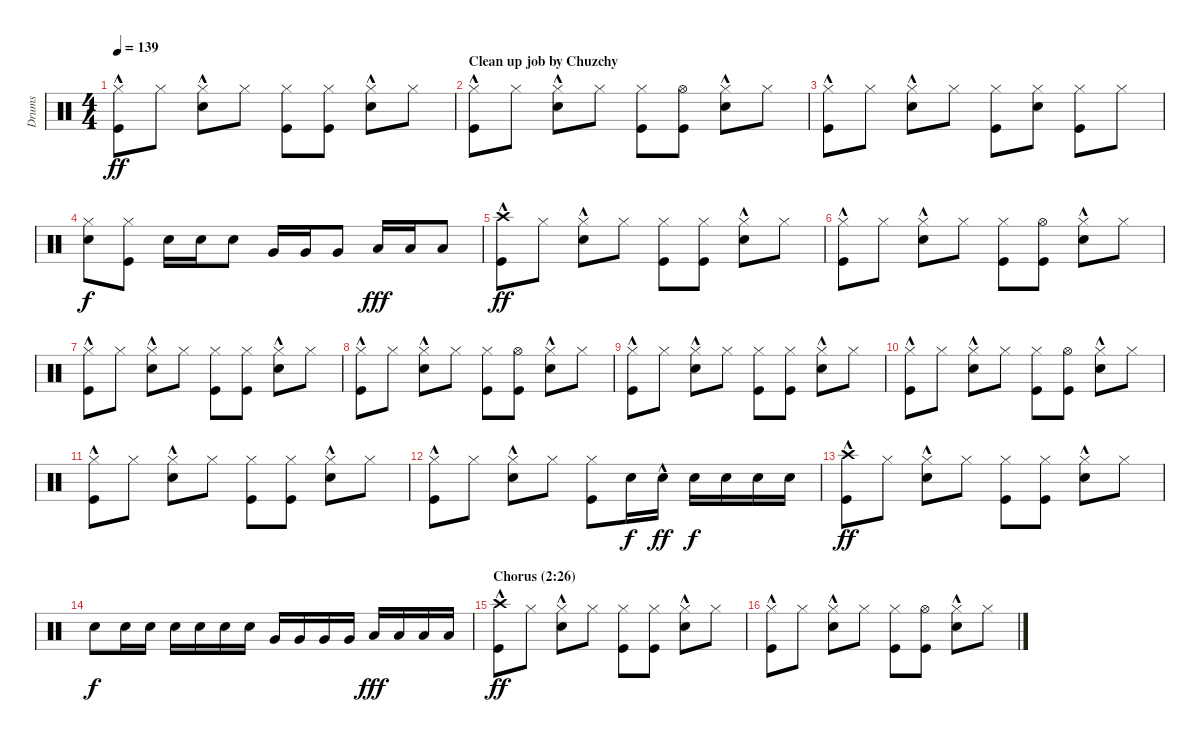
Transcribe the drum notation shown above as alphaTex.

\track ("Drums" "Drums") {instrument percussion}
\staff {score}
\articulation defaults
\ts (4 4)
\tempo 139
\clef neutral
\ks c
("Hi-Hat (closed)" "Kick (hit)"{hac}).8{dy ff} "Hi-Hat (closed)".8 ("Hi-Hat (closed)" "Snare (hit) 2"{hac}).8 "Hi-Hat (closed)".8 ("Hi-Hat (closed)" "Kick (hit)").8 ("Hi-Hat (closed)" "Kick (hit)").8 ("Hi-Hat (closed)" "Snare (hit) 2"{hac}).8 "Hi-Hat (closed)".8 |
\section ("" "Clean up job by Chuzchy")
("Hi-Hat (closed)" "Kick (hit)"{hac}).8 "Hi-Hat (closed)".8 ("Hi-Hat (closed)" "Snare (hit) 2"{hac}).8 "Hi-Hat (closed)".8 ("Hi-Hat (closed)" "Kick (hit)").8 ("Hi-Hat (open)" "Kick (hit)").8 ("Hi-Hat (closed)" "Snare (hit) 2"{hac}).8 "Hi-Hat (closed)".8 |
("Hi-Hat (closed)" "Kick (hit)"{hac}).8 "Hi-Hat (closed)".8 ("Hi-Hat (closed)" "Snare (hit) 2"{hac}).8 "Hi-Hat (closed)".8 ("Hi-Hat (closed)" "Kick (hit)").8 ("Hi-Hat (closed)" "Snare (hit) 2").8 ("Hi-Hat (closed)" "Kick (hit)").8 "Hi-Hat (closed)".8 |
("Hi-Hat (closed)" "Snare (hit) 2").8{dy f} ("Hi-Hat (closed)" "Kick (hit)").8 "Snare (hit) 2".16 "Snare (hit) 2".16 "Snare (hit) 2".8 "Very Low Tom (hit)".16 "Very Low Tom (hit)".16 "Very Low Tom (hit)".8 "Low Floor Tom (hit)".16{dy fff} "Low Floor Tom (hit)".16 "Low Floor Tom (hit)".8 |
("Crash high (hit)" "Kick (hit)"{hac}).8{dy ff} "Hi-Hat (closed)".8 ("Hi-Hat (closed)" "Snare (hit) 2"{hac}).8 "Hi-Hat (closed)".8 ("Hi-Hat (closed)" "Kick (hit)").8 ("Hi-Hat (closed)" "Kick (hit)").8 ("Hi-Hat (closed)" "Snare (hit) 2"{hac}).8 "Hi-Hat (closed)".8 |
("Hi-Hat (closed)" "Kick (hit)"{hac}).8 "Hi-Hat (closed)".8 ("Hi-Hat (closed)" "Snare (hit) 2"{hac}).8 "Hi-Hat (closed)".8 ("Hi-Hat (closed)" "Kick (hit)").8 ("Hi-Hat (open)" "Kick (hit)").8 ("Hi-Hat (closed)" "Snare (hit) 2"{hac}).8 "Hi-Hat (closed)".8 |
("Hi-Hat (closed)" "Kick (hit)"{hac}).8 "Hi-Hat (closed)".8 ("Hi-Hat (closed)" "Snare (hit) 2"{hac}).8 "Hi-Hat (closed)".8 ("Hi-Hat (closed)" "Kick (hit)").8 ("Hi-Hat (closed)" "Kick (hit)").8 ("Hi-Hat (closed)" "Snare (hit) 2"{hac}).8 "Hi-Hat (closed)".8 |
("Hi-Hat (closed)" "Kick (hit)"{hac}).8 "Hi-Hat (closed)".8 ("Hi-Hat (closed)" "Snare (hit) 2"{hac}).8 "Hi-Hat (closed)".8 ("Hi-Hat (closed)" "Kick (hit)").8 ("Hi-Hat (open)" "Kick (hit)").8 ("Hi-Hat (closed)" "Snare (hit) 2"{hac}).8 "Hi-Hat (closed)".8 |
("Hi-Hat (closed)" "Kick (hit)"{hac}).8 "Hi-Hat (closed)".8 ("Hi-Hat (closed)" "Snare (hit) 2"{hac}).8 "Hi-Hat (closed)".8 ("Hi-Hat (closed)" "Kick (hit)").8 ("Hi-Hat (closed)" "Kick (hit)").8 ("Hi-Hat (closed)" "Snare (hit) 2"{hac}).8 "Hi-Hat (closed)".8 |
("Hi-Hat (closed)" "Kick (hit)"{hac}).8 "Hi-Hat (closed)".8 ("Hi-Hat (closed)" "Snare (hit) 2"{hac}).8 "Hi-Hat (closed)".8 ("Hi-Hat (closed)" "Kick (hit)").8 ("Hi-Hat (open)" "Kick (hit)").8 ("Hi-Hat (closed)" "Snare (hit) 2"{hac}).8 "Hi-Hat (closed)".8 |
("Hi-Hat (closed)" "Kick (hit)"{hac}).8 "Hi-Hat (closed)".8 ("Hi-Hat (closed)" "Snare (hit) 2"{hac}).8 "Hi-Hat (closed)".8 ("Hi-Hat (closed)" "Kick (hit)").8 ("Hi-Hat (closed)" "Kick (hit)").8 ("Hi-Hat (closed)" "Snare (hit) 2"{hac}).8 "Hi-Hat (closed)".8 |
("Hi-Hat (closed)" "Kick (hit)"{hac}).8 "Hi-Hat (closed)".8 ("Hi-Hat (closed)" "Snare (hit) 2"{hac}).8 "Hi-Hat (closed)".8 ("Hi-Hat (closed)" "Kick (hit)").8 "Snare (hit) 2".16{dy f} "Snare (hit) 2"{hac}.16{dy ff} "Snare (hit) 2".16{dy f} "Snare (hit) 2".16 "Snare (hit) 2".16 "Snare (hit) 2".16 |
("Crash high (hit)" "Kick (hit)"{hac}).8{dy ff} "Hi-Hat (closed)".8 ("Hi-Hat (closed)" "Snare (hit) 2"{hac}).8 "Hi-Hat (closed)".8 ("Hi-Hat (closed)" "Kick (hit)").8 ("Hi-Hat (closed)" "Kick (hit)").8 ("Hi-Hat (closed)" "Snare (hit) 2"{hac}).8 "Hi-Hat (closed)".8 |
"Snare (hit) 2".8{dy f} "Snare (hit) 2".16 "Snare (hit) 2".16 "Snare (hit) 2".16 "Snare (hit) 2".16 "Snare (hit) 2".16 "Snare (hit) 2".16 "Very Low Tom (hit)".16 "Very Low Tom (hit)".16 "Very Low Tom (hit)".16 "Very Low Tom (hit)".16 "Low Floor Tom (hit)".16{dy fff} "Low Floor Tom (hit)".16 "Low Floor Tom (hit)".16 "Low Floor Tom (hit)".16 |
\section ("" "Chorus (2:26)")
("Crash high (hit)" "Kick (hit)"{hac}).8{dy ff} "Hi-Hat (closed)".8 ("Hi-Hat (closed)" "Snare (hit) 2"{hac}).8 "Hi-Hat (closed)".8 ("Hi-Hat (closed)" "Kick (hit)").8 ("Hi-Hat (closed)" "Kick (hit)").8 ("Hi-Hat (closed)" "Snare (hit) 2"{hac}).8 "Hi-Hat (closed)".8 |
("Hi-Hat (closed)" "Kick (hit)"{hac}).8 "Hi-Hat (closed)".8 ("Hi-Hat (closed)" "Snare (hit) 2"{hac}).8 "Hi-Hat (closed)".8 ("Hi-Hat (closed)" "Kick (hit)").8 ("Hi-Hat (open)" "Kick (hit)").8 ("Hi-Hat (closed)" "Snare (hit) 2"{hac}).8 "Hi-Hat (closed)".8
